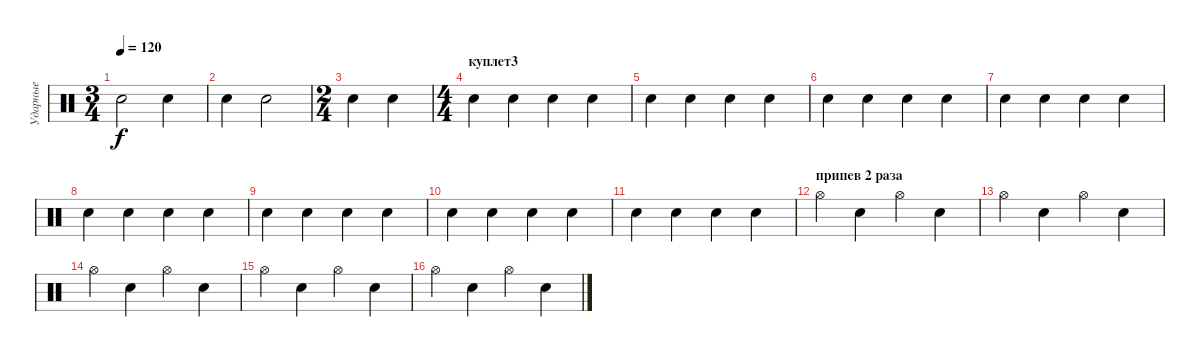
\track ("Ударные" "Ударные") {instrument percussion}
\staff {score}
\articulation defaults
\ts (3 4)
\tempo 120
\clef neutral
\ks c "Electric Snare (hit)".2{dy f} "Electric Snare (hit)".4
|
"Electric Snare (hit)".4 "Electric Snare (hit)".2 |
\ts (2 4)
"Electric Snare (hit)".4 "Electric Snare (hit)".4 |
\ts (4 4)
\section ("" "куплет3")
"Electric Snare (hit)".4 "Electric Snare (hit)".4 "Electric Snare (hit)".4 "Electric Snare (hit)".4 |
"Electric Snare (hit)".4 "Electric Snare (hit)".4 "Electric Snare (hit)".4 "Electric Snare (hit)".4 |
"Electric Snare (hit)".4 "Electric Snare (hit)".4 "Electric Snare (hit)".4 "Electric Snare (hit)".4 |
"Electric Snare (hit)".4 "Electric Snare (hit)".4 "Electric Snare (hit)".4 "Electric Snare (hit)".4 |
"Electric Snare (hit)".4 "Electric Snare (hit)".4 "Electric Snare (hit)".4 "Electric Snare (hit)".4 |
"Electric Snare (hit)".4 "Electric Snare (hit)".4 "Electric Snare (hit)".4 "Electric Snare (hit)".4 |
"Electric Snare (hit)".4 "Electric Snare (hit)".4 "Electric Snare (hit)".4 "Electric Snare (hit)".4 |
"Electric Snare (hit)".4 "Electric Snare (hit)".4 "Electric Snare (hit)".4 "Electric Snare (hit)".4 |
\section ("" "припев 2 раза")
"Hi-Hat (open)".4 "Electric Snare (hit)".4 "Hi-Hat (open)".4 "Electric Snare (hit)".4 |
"Hi-Hat (open)".4 "Electric Snare (hit)".4 "Hi-Hat (open)".4 "Electric Snare (hit)".4 |
"Hi-Hat (open)".4 "Electric Snare (hit)".4 "Hi-Hat (open)".4 "Electric Snare (hit)".4 |
"Hi-Hat (open)".4 "Electric Snare (hit)".4 "Hi-Hat (open)".4 "Electric Snare (hit)".4 |
"Hi-Hat (open)".4 "Electric Snare (hit)".4 "Hi-Hat (open)".4 "Electric Snare (hit)".4
